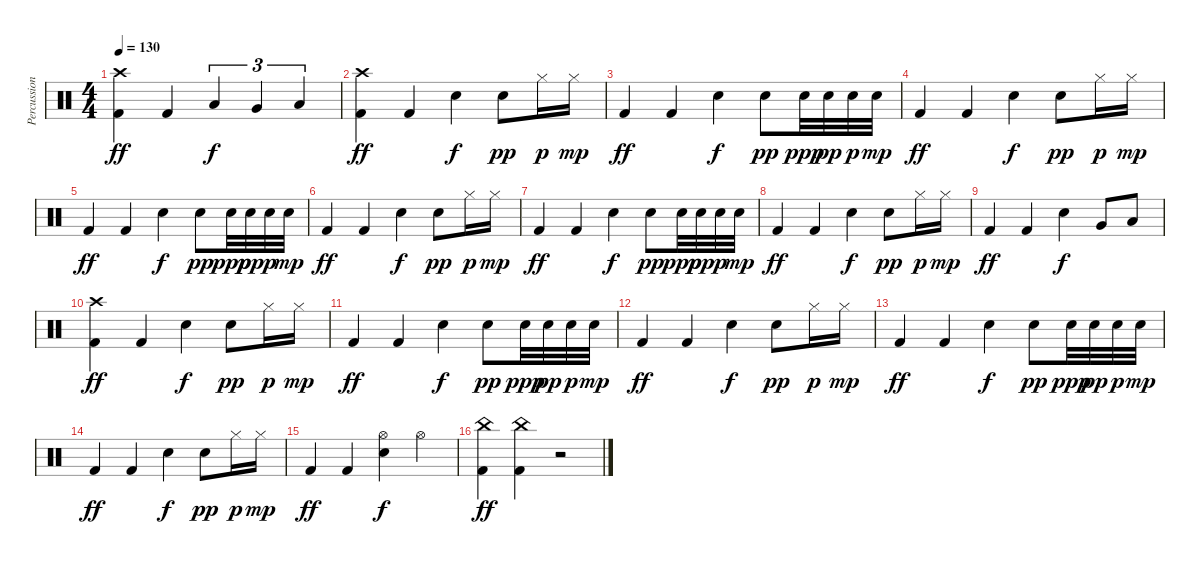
\track ("Percussions" "Percussion") {instrument percussion}
\staff {score}
\articulation defaults
\ts (4 4)
\tempo 130
\clef neutral
\ks c
("Crash high (hit)" "Kick (hit) 2").4{dy ff} "Kick (hit) 2".4 "Low Tom (hit)".4{tu (3 2) dy f} "Very Low Tom (hit)".4{tu (3 2)} "Low Floor Tom (hit)".4{tu (3 2)} |
("Crash high (hit)" "Kick (hit) 2").4{dy ff} "Kick (hit) 2".4 "Snare (hit) 2".4{dy f} "Snare (hit) 2".8{dy pp} "Hi-Hat (closed)".16{dy p} "Hi-Hat (closed)".16{dy mp} |
"Kick (hit) 2".4{dy ff} "Kick (hit) 2".4 "Snare (hit) 2".4{dy f} "Snare (hit) 2".8{dy pp} "Snare (hit) 2".32{dy ppp} "Snare (hit) 2".32{dy pp} "Snare (hit) 2".32{dy p} "Snare (hit) 2".32{dy mp} |
"Kick (hit) 2".4{dy ff} "Kick (hit) 2".4 "Snare (hit) 2".4{dy f} "Snare (hit) 2".8{dy pp} "Hi-Hat (closed)".16{dy p} "Hi-Hat (closed)".16{dy mp} |
"Kick (hit) 2".4{dy ff} "Kick (hit) 2".4 "Snare (hit) 2".4{dy f} "Snare (hit) 2".8{dy pp} "Snare (hit) 2".32{dy ppp} "Snare (hit) 2".32{dy pp} "Snare (hit) 2".32{dy p} "Snare (hit) 2".32{dy mp} |
"Kick (hit) 2".4{dy ff} "Kick (hit) 2".4 "Snare (hit) 2".4{dy f} "Snare (hit) 2".8{dy pp} "Hi-Hat (closed)".16{dy p} "Hi-Hat (closed)".16{dy mp} |
"Kick (hit) 2".4{dy ff} "Kick (hit) 2".4 "Snare (hit) 2".4{dy f} "Snare (hit) 2".8{dy pp} "Snare (hit) 2".32{dy ppp} "Snare (hit) 2".32{dy pp} "Snare (hit) 2".32{dy p} "Snare (hit) 2".32{dy mp} |
"Kick (hit) 2".4{dy ff} "Kick (hit) 2".4 "Snare (hit) 2".4{dy f} "Snare (hit) 2".8{dy pp} "Hi-Hat (closed)".16{dy p} "Hi-Hat (closed)".16{dy mp} |
"Kick (hit) 2".4{dy ff} "Kick (hit) 2".4 "Snare (hit) 2".4{dy f} "Very Low Tom (hit)".8 "Low Floor Tom (hit)".8 |
("Crash high (hit)" "Kick (hit) 2").4{dy ff} "Kick (hit) 2".4 "Snare (hit) 2".4{dy f} "Snare (hit) 2".8{dy pp} "Hi-Hat (closed)".16{dy p} "Hi-Hat (closed)".16{dy mp} |
"Kick (hit) 2".4{dy ff} "Kick (hit) 2".4 "Snare (hit) 2".4{dy f} "Snare (hit) 2".8{dy pp} "Snare (hit) 2".32{dy ppp} "Snare (hit) 2".32{dy pp} "Snare (hit) 2".32{dy p} "Snare (hit) 2".32{dy mp} |
"Kick (hit) 2".4{dy ff} "Kick (hit) 2".4 "Snare (hit) 2".4{dy f} "Snare (hit) 2".8{dy pp} "Hi-Hat (closed)".16{dy p} "Hi-Hat (closed)".16{dy mp} |
"Kick (hit) 2".4{dy ff} "Kick (hit) 2".4 "Snare (hit) 2".4{dy f} "Snare (hit) 2".8{dy pp} "Snare (hit) 2".32{dy ppp} "Snare (hit) 2".32{dy pp} "Snare (hit) 2".32{dy p} "Snare (hit) 2".32{dy mp} |
"Kick (hit) 2".4{dy ff} "Kick (hit) 2".4 "Snare (hit) 2".4{dy f} "Snare (hit) 2".8{dy pp} "Hi-Hat (closed)".16{dy p} "Hi-Hat (closed)".16{dy mp} |
"Kick (hit) 2".4{dy ff} "Kick (hit) 2".4 ("Snare (hit) 2" "Hi-Hat (open)").4{dy f} "Hi-Hat (open)".4 |
("China (hit)" "Kick (hit) 2").4{dy ff} ("China (hit)" "Kick (hit) 2").4 r.2
